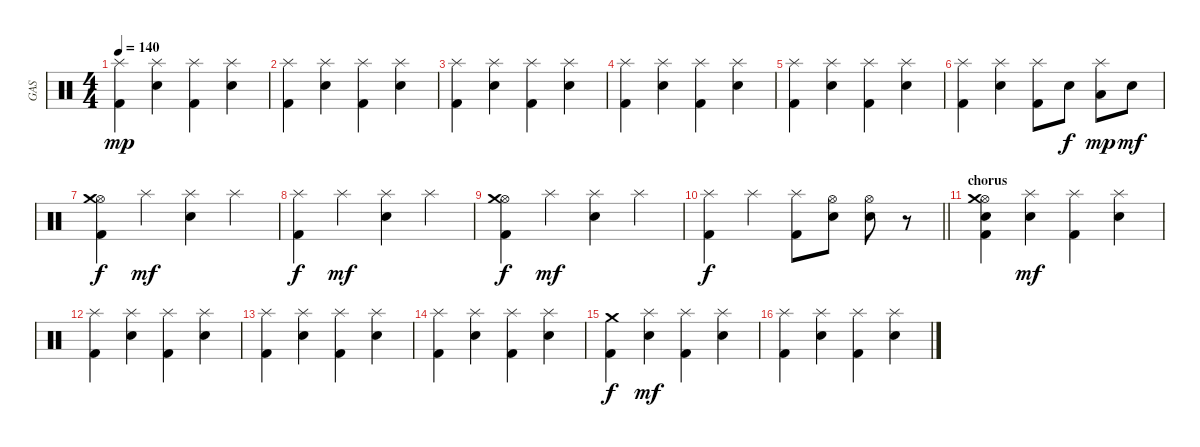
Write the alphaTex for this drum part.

\track ("GAS" "GAS") {instrument percussion}
\staff {score}
\articulation defaults
\ts (4 4)
\tempo 140
\clef neutral
\ks c
("Kick (hit) 2" "Splash (hit)").4{dy mp} ("Electric Snare (hit)" "Splash (hit)").4 ("Kick (hit) 2" "Splash (hit)").4 ("Electric Snare (hit)" "Splash (hit)").4 |
("Kick (hit) 2" "Splash (hit)").4 ("Electric Snare (hit)" "Splash (hit)").4 ("Kick (hit) 2" "Splash (hit)").4 ("Electric Snare (hit)" "Splash (hit)").4 |
("Kick (hit) 2" "Splash (hit)").4 ("Electric Snare (hit)" "Splash (hit)").4 ("Kick (hit) 2" "Splash (hit)").4 ("Electric Snare (hit)" "Splash (hit)").4 |
("Kick (hit) 2" "Splash (hit)").4 ("Electric Snare (hit)" "Splash (hit)").4 ("Kick (hit) 2" "Splash (hit)").4 ("Electric Snare (hit)" "Splash (hit)").4 |
("Kick (hit) 2" "Splash (hit)").4 ("Electric Snare (hit)" "Splash (hit)").4 ("Kick (hit) 2" "Splash (hit)").4 ("Electric Snare (hit)" "Splash (hit)").4 |
("Kick (hit) 2" "Splash (hit)").4 ("Electric Snare (hit)" "Splash (hit)").4 ("Kick (hit) 2" "Splash (hit)").8 "Electric Snare (hit)".8{dy f} ("Low Tom (hit)" "Splash (hit)").8{dy mp} "Electric Snare (hit)".8{dy mf} |
("Kick (hit) 2" "Hi-Hat (open)" "Crash medium (hit)").4{dy f} "Splash (hit)".4{dy mf} ("Electric Snare (hit)" "Splash (hit)").4 "Splash (hit)".4 |
("Kick (hit) 2" "Splash (hit)").4{dy f} "Splash (hit)".4{dy mf} ("Electric Snare (hit)" "Splash (hit)").4 "Splash (hit)".4 |
("Kick (hit) 2" "Hi-Hat (open)" "Crash medium (hit)").4{dy f} "Splash (hit)".4{dy mf} ("Electric Snare (hit)" "Splash (hit)").4 "Splash (hit)".4 |
\barLineRight lightlight
("Kick (hit) 2" "Splash (hit)").4{dy f} "Splash (hit)".4 ("Kick (hit) 2" "Splash (hit)").8 ("Electric Snare (hit)" "Hi-Hat (open)").8 ("Electric Snare (hit)" "Hi-Hat (open)").8 r.8 |
\section ("" "chorus")
("Kick (hit) 2" "Electric Snare (hit)" "Hi-Hat (open)" "Crash medium (hit)").4 ("Electric Snare (hit)" "Splash (hit)").4{dy mf} ("Kick (hit) 2" "Splash (hit)").4 ("Electric Snare (hit)" "Splash (hit)").4 |
("Kick (hit) 2" "Splash (hit)").4 ("Electric Snare (hit)" "Splash (hit)").4 ("Kick (hit) 2" "Splash (hit)").4 ("Electric Snare (hit)" "Splash (hit)").4 |
("Kick (hit) 2" "Splash (hit)").4 ("Electric Snare (hit)" "Splash (hit)").4 ("Kick (hit) 2" "Splash (hit)").4 ("Electric Snare (hit)" "Splash (hit)").4 |
("Kick (hit) 2" "Splash (hit)").4 ("Electric Snare (hit)" "Splash (hit)").4 ("Kick (hit) 2" "Splash (hit)").4 ("Electric Snare (hit)" "Splash (hit)").4 |
("Kick (hit) 2" "Crash medium (hit)").4{dy f} ("Electric Snare (hit)" "Splash (hit)").4{dy mf} ("Kick (hit) 2" "Splash (hit)").4 ("Electric Snare (hit)" "Splash (hit)").4 |
("Kick (hit) 2" "Splash (hit)").4 ("Electric Snare (hit)" "Splash (hit)").4 ("Kick (hit) 2" "Splash (hit)").4 ("Electric Snare (hit)" "Splash (hit)").4
